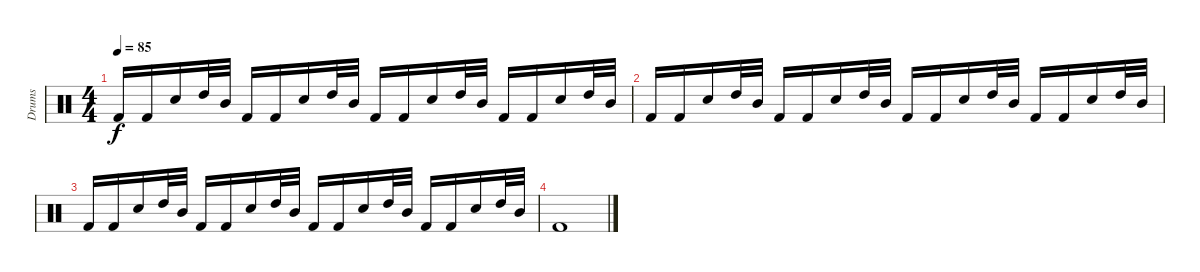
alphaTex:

\track ("Drums" "Drums") {instrument percussion}
\staff {score}
\articulation defaults
\ts (4 4)
\tempo 85
\clef neutral
\ks c "Kick (hit) 2".16{dy f} "Kick (hit) 2".16 "Snare (hit) 2".16 "High Tom (hit)".32 "Mid Tom (hit)".32 "Kick (hit) 2".16 "Kick (hit) 2".16 "Snare (hit) 2".16 "High Tom (hit)".32 "Mid Tom (hit)".32 "Kick (hit) 2".16 "Kick (hit) 2".16 "Snare (hit) 2".16 "High Tom (hit)".32 "Mid Tom (hit)".32 "Kick (hit) 2".16 "Kick (hit) 2".16 "Snare (hit) 2".16 "High Tom (hit)".32 "Mid Tom (hit)".32
|
"Kick (hit) 2".16 "Kick (hit) 2".16 "Snare (hit) 2".16 "High Tom (hit)".32 "Mid Tom (hit)".32 "Kick (hit) 2".16 "Kick (hit) 2".16 "Snare (hit) 2".16 "High Tom (hit)".32 "Mid Tom (hit)".32 "Kick (hit) 2".16 "Kick (hit) 2".16 "Snare (hit) 2".16 "High Tom (hit)".32 "Mid Tom (hit)".32 "Kick (hit) 2".16 "Kick (hit) 2".16 "Snare (hit) 2".16 "High Tom (hit)".32 "Mid Tom (hit)".32 |
"Kick (hit) 2".16 "Kick (hit) 2".16 "Snare (hit) 2".16 "High Tom (hit)".32 "Mid Tom (hit)".32 "Kick (hit) 2".16 "Kick (hit) 2".16 "Snare (hit) 2".16 "High Tom (hit)".32 "Mid Tom (hit)".32 "Kick (hit) 2".16 "Kick (hit) 2".16 "Snare (hit) 2".16 "High Tom (hit)".32 "Mid Tom (hit)".32 "Kick (hit) 2".16 "Kick (hit) 2".16 "Snare (hit) 2".16 "High Tom (hit)".32 "Mid Tom (hit)".32 |
"Kick (hit) 2".1
